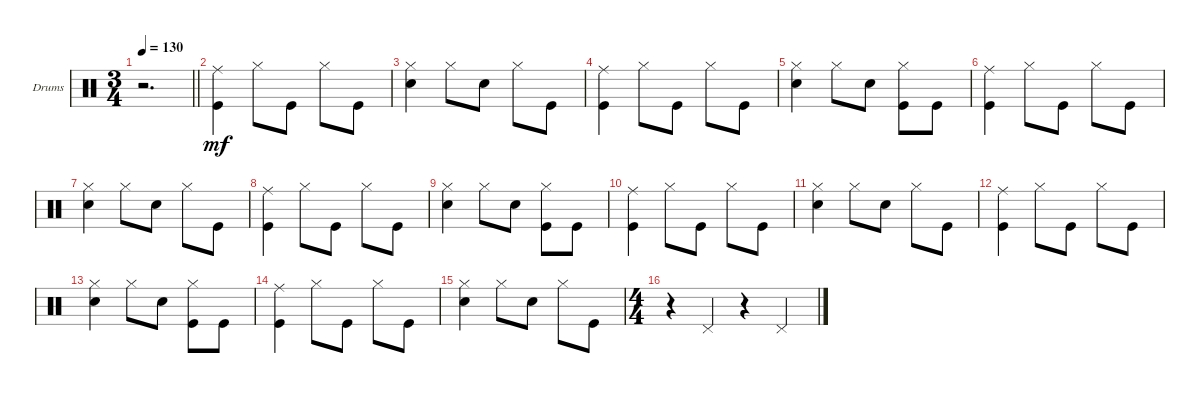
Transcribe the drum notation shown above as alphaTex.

\defaultSystemsLayout 4
\bracketExtendMode groupsimilarinstruments
\firstSystemTrackNameOrientation horizontal
\otherSystemsTrackNameOrientation horizontal
\chordDiagramsInScore
\track ("Drumkit" "Drums") {instrument percussion}
\staff {score}
\articulation defaults
\ts (3 4)
\tempo 130
\clef neutral
\barLineRight lightlight
\ks c
r.2{d dy mf} |
("Kick (hit)" "Ride (middle)").4 "Hi-Hat (closed)".8 "Kick (hit)".8 "Hi-Hat (closed)".8 "Kick (hit)".8 |
("Hi-Hat (closed)" "Snare (hit) 2").4 "Hi-Hat (closed)".8 "Snare (hit) 2".8 "Hi-Hat (closed)".8 "Kick (hit)".8 |
("Kick (hit)" "Ride (middle)").4 "Hi-Hat (closed)".8 "Kick (hit)".8 "Hi-Hat (closed)".8 "Kick (hit)".8 |
("Hi-Hat (closed)" "Snare (hit) 2").4 "Hi-Hat (closed)".8 "Snare (hit) 2".8 ("Kick (hit)" "Hi-Hat (closed)").8 "Kick (hit)".8 |
("Kick (hit)" "Ride (middle)").4 "Hi-Hat (closed)".8 "Kick (hit)".8 "Hi-Hat (closed)".8 "Kick (hit)".8 |
("Hi-Hat (closed)" "Snare (hit) 2").4 "Hi-Hat (closed)".8 "Snare (hit) 2".8 "Hi-Hat (closed)".8 "Kick (hit)".8 |
("Kick (hit)" "Ride (middle)").4 "Hi-Hat (closed)".8 "Kick (hit)".8 "Hi-Hat (closed)".8 "Kick (hit)".8 |
("Hi-Hat (closed)" "Snare (hit) 2").4 "Hi-Hat (closed)".8 "Snare (hit) 2".8 ("Kick (hit)" "Hi-Hat (closed)").8 "Kick (hit)".8 |
("Kick (hit)" "Ride (middle)").4 "Hi-Hat (closed)".8 "Kick (hit)".8 "Hi-Hat (closed)".8 "Kick (hit)".8 |
("Hi-Hat (closed)" "Snare (hit) 2").4 "Hi-Hat (closed)".8 "Snare (hit) 2".8 "Hi-Hat (closed)".8 "Kick (hit)".8 |
("Kick (hit)" "Ride (middle)").4 "Hi-Hat (closed)".8 "Kick (hit)".8 "Hi-Hat (closed)".8 "Kick (hit)".8 |
("Hi-Hat (closed)" "Snare (hit) 2").4 "Hi-Hat (closed)".8 "Snare (hit) 2".8 ("Kick (hit)" "Hi-Hat (closed)").8 "Kick (hit)".8 |
("Kick (hit)" "Ride (middle)").4 "Hi-Hat (closed)".8 "Kick (hit)".8 "Hi-Hat (closed)".8 "Kick (hit)".8 |
("Hi-Hat (closed)" "Snare (hit) 2").4 "Hi-Hat (closed)".8 "Snare (hit) 2".8 "Hi-Hat (closed)".8 "Kick (hit)".8 |
\ts (4 4)
r.4 "Pedal Hi-Hat (hit)".4 r.4 "Pedal Hi-Hat (hit)".4
